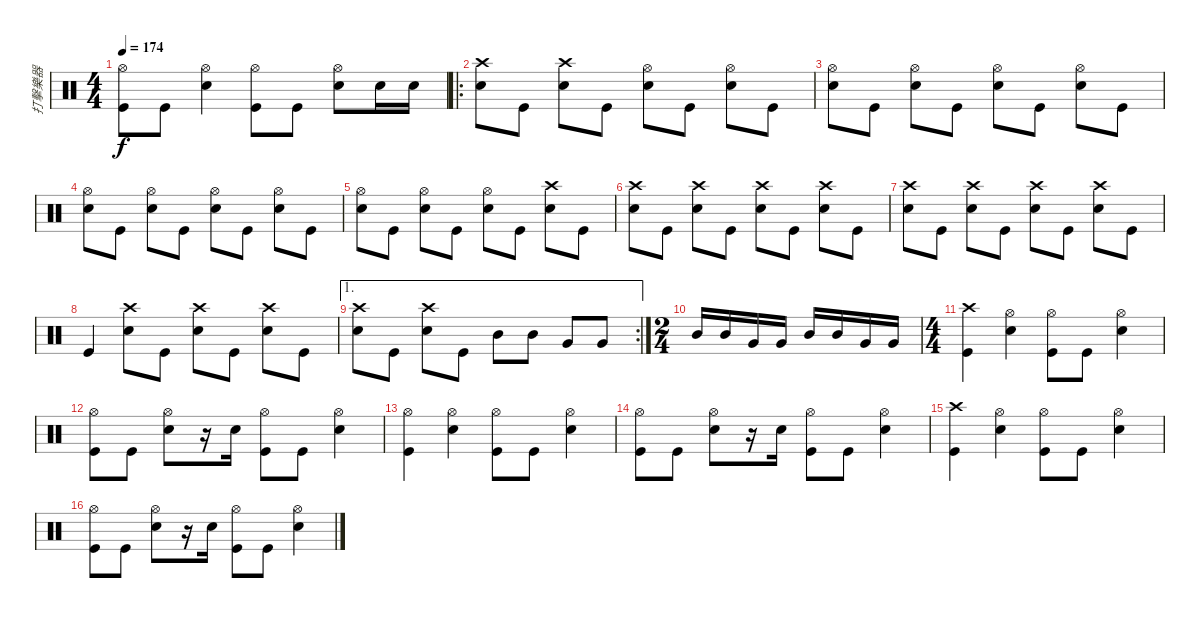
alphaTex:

\track ("打擊樂器" "打擊樂器") {instrument percussion}
\staff {score}
\articulation defaults
\ts (4 4)
\tempo 174
\clef neutral
\ks c
("Hi-Hat (open)" "Kick (hit)").8{dy f} "Kick (hit)".8 ("Hi-Hat (open)" "Snare (hit) 2").4 ("Hi-Hat (open)" "Kick (hit)").8 "Kick (hit)".8 ("Hi-Hat (open)" "Snare (hit) 2").8 "Snare (hit) 2".16 "Snare (hit) 2".16 |
\ro
("Crash high (hit)" "Snare (hit) 2").8 "Kick (hit)".8 ("Crash high (hit)" "Snare (hit) 2").8 "Kick (hit)".8 ("Hi-Hat (open)" "Snare (hit) 2").8 "Kick (hit)".8 ("Hi-Hat (open)" "Snare (hit) 2").8 "Kick (hit)".8 |
("Hi-Hat (open)" "Snare (hit) 2").8 "Kick (hit)".8 ("Hi-Hat (open)" "Snare (hit) 2").8 "Kick (hit)".8 ("Hi-Hat (open)" "Snare (hit) 2").8 "Kick (hit)".8 ("Hi-Hat (open)" "Snare (hit) 2").8 "Kick (hit)".8 |
("Hi-Hat (open)" "Snare (hit) 2").8 "Kick (hit)".8 ("Hi-Hat (open)" "Snare (hit) 2").8 "Kick (hit)".8 ("Hi-Hat (open)" "Snare (hit) 2").8 "Kick (hit)".8 ("Hi-Hat (open)" "Snare (hit) 2").8 "Kick (hit)".8 |
("Hi-Hat (open)" "Snare (hit) 2").8 "Kick (hit)".8 ("Hi-Hat (open)" "Snare (hit) 2").8 "Kick (hit)".8 ("Hi-Hat (open)" "Snare (hit) 2").8 "Kick (hit)".8 ("Crash high (hit)" "Snare (hit) 2").8 "Kick (hit)".8 |
("Crash high (hit)" "Snare (hit) 2").8 "Kick (hit)".8 ("Crash high (hit)" "Snare (hit) 2").8 "Kick (hit)".8 ("Crash high (hit)" "Snare (hit) 2").8 "Kick (hit)".8 ("Crash high (hit)" "Snare (hit) 2").8 "Kick (hit)".8 |
("Crash high (hit)" "Snare (hit) 2").8 "Kick (hit)".8 ("Crash high (hit)" "Snare (hit) 2").8 "Kick (hit)".8 ("Crash high (hit)" "Snare (hit) 2").8 "Kick (hit)".8 ("Crash high (hit)" "Snare (hit) 2").8 "Kick (hit)".8 |
"Kick (hit)".4 ("Crash high (hit)" "Snare (hit) 2").8 "Kick (hit)".8 ("Crash high (hit)" "Snare (hit) 2").8 "Kick (hit)".8 ("Crash high (hit)" "Snare (hit) 2").8 "Kick (hit)".8 |
\ae 1
\rc 2
("Crash high (hit)" "Snare (hit) 2").8 "Kick (hit)".8 ("Crash high (hit)" "Snare (hit) 2").8 "Kick (hit)".8 "Mid Tom (hit)".8 "Mid Tom (hit)".8 "Very Low Tom (hit)".8 "Very Low Tom (hit)".8 |
\ts (2 4)
"Mid Tom (hit)".16 "Mid Tom (hit)".16 "Very Low Tom (hit)".16 "Very Low Tom (hit)".16 "Mid Tom (hit)".16 "Mid Tom (hit)".16 "Very Low Tom (hit)".16 "Very Low Tom (hit)".16 |
\ts (4 4)
("Kick (hit)" "Crash high (hit)").4 ("Hi-Hat (open)" "Snare (hit) 2").4 ("Kick (hit)" "Hi-Hat (open)").8 "Kick (hit)".8 ("Hi-Hat (open)" "Snare (hit) 2").4 |
("Hi-Hat (open)" "Kick (hit)").8 "Kick (hit)".8 ("Hi-Hat (open)" "Snare (hit) 2").8 r.16 "Snare (hit) 2".16 ("Hi-Hat (open)" "Kick (hit)").8 "Kick (hit)".8 ("Hi-Hat (open)" "Snare (hit) 2").4 |
("Kick (hit)" "Hi-Hat (open)").4 ("Hi-Hat (open)" "Snare (hit) 2").4 ("Kick (hit)" "Hi-Hat (open)").8 "Kick (hit)".8 ("Hi-Hat (open)" "Snare (hit) 2").4 |
("Hi-Hat (open)" "Kick (hit)").8 "Kick (hit)".8 ("Hi-Hat (open)" "Snare (hit) 2").8 r.16 "Snare (hit) 2".16 ("Hi-Hat (open)" "Kick (hit)").8 "Kick (hit)".8 ("Hi-Hat (open)" "Snare (hit) 2").4 |
("Kick (hit)" "Crash high (hit)").4 ("Hi-Hat (open)" "Snare (hit) 2").4 ("Kick (hit)" "Hi-Hat (open)").8 "Kick (hit)".8 ("Hi-Hat (open)" "Snare (hit) 2").4 |
("Hi-Hat (open)" "Kick (hit)").8 "Kick (hit)".8 ("Hi-Hat (open)" "Snare (hit) 2").8 r.16 "Snare (hit) 2".16 ("Hi-Hat (open)" "Kick (hit)").8 "Kick (hit)".8 ("Hi-Hat (open)" "Snare (hit) 2").4
